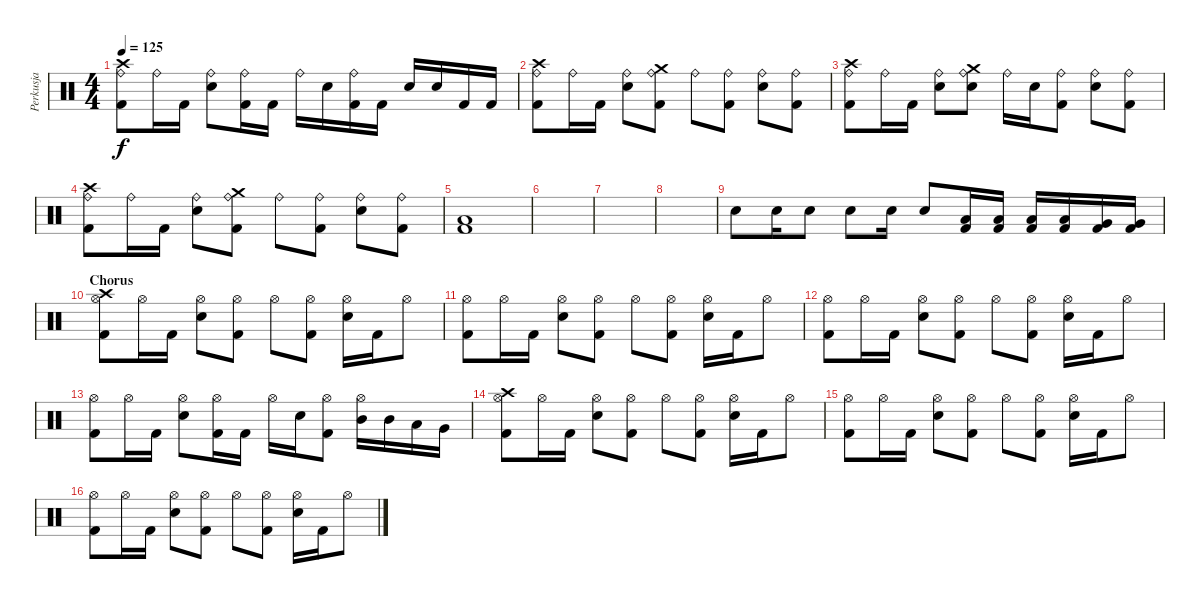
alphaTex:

\track ("Perkusja" "Perkusja") {instrument percussion}
\staff {score}
\articulation defaults
\ts (4 4)
\tempo 125
\clef neutral
\ks c
("Ride (bell)" "Kick (hit) 2" "Crash high (hit)").8{dy f} "Ride (bell)".16 "Kick (hit) 2".16 ("Ride (bell)" "Electric Snare (hit)").8 ("Ride (bell)" "Kick (hit) 2").16 "Kick (hit) 2".16 "Ride (bell)".16 "Electric Snare (hit)".16 ("Ride (bell)" "Kick (hit) 2").16 "Kick (hit) 2".16 "Electric Snare (hit)".16 "Electric Snare (hit)".16 "Kick (hit) 2".16 "Kick (hit) 2".16 |
("Ride (bell)" "Kick (hit) 2" "Crash high (hit)").8 "Ride (bell)".16 "Kick (hit) 2".16 ("Ride (bell)" "Electric Snare (hit)").8 ("Ride (bell)" "Kick (hit) 2" "Crash medium (hit)").8 "Ride (bell)".8 ("Ride (bell)" "Kick (hit) 2").8 ("Ride (bell)" "Electric Snare (hit)").8 ("Ride (bell)" "Kick (hit) 2").8 |
("Ride (bell)" "Kick (hit) 2" "Crash high (hit)").8 "Ride (bell)".16 "Kick (hit) 2".16 ("Ride (bell)" "Electric Snare (hit)").8 ("Ride (bell)" "Electric Snare (hit)" "Crash medium (hit)").8 "Ride (bell)".16 "Electric Snare (hit)".16 ("Ride (bell)" "Kick (hit) 2").8 ("Ride (bell)" "Electric Snare (hit)").8 ("Ride (bell)" "Kick (hit) 2").8 |
("Ride (bell)" "Kick (hit) 2" "Crash high (hit)").8 "Ride (bell)".16 "Kick (hit) 2".16 ("Ride (bell)" "Electric Snare (hit)").8 ("Ride (bell)" "Kick (hit) 2" "Crash medium (hit)").8 "Ride (bell)".8 ("Ride (bell)" "Kick (hit) 2").8 ("Ride (bell)" "Electric Snare (hit)").8 ("Ride (bell)" "Kick (hit) 2").8 |
("Low Tom (hit)" "Kick (hit) 2").1 |
|
|
|
"Electric Snare (hit)".8 "Electric Snare (hit)".16 "Electric Snare (hit)".8 "Electric Snare (hit)".8 "Electric Snare (hit)".16 "Electric Snare (hit)".8 ("Low Tom (hit)" "Kick (hit) 2").16 ("Low Tom (hit)" "Kick (hit) 2").16 ("Low Tom (hit)" "Kick (hit) 2").16 ("Low Tom (hit)" "Kick (hit) 2").16 ("Very Low Tom (hit)" "Kick (hit) 2").16 ("Very Low Tom (hit)" "Kick (hit) 2").16 |
\section ("" "Chorus")
("Hi-Hat (open)" "Kick (hit) 2" "Crash high (hit)").8 "Hi-Hat (open)".16 "Kick (hit) 2".16 ("Hi-Hat (open)" "Electric Snare (hit)").8 ("Hi-Hat (open)" "Kick (hit) 2").8 "Hi-Hat (open)".8 ("Hi-Hat (open)" "Kick (hit) 2").8 ("Hi-Hat (open)" "Electric Snare (hit)").16 "Kick (hit) 2".16 "Hi-Hat (open)".8 |
("Hi-Hat (open)" "Kick (hit) 2").8 "Hi-Hat (open)".16 "Kick (hit) 2".16 ("Hi-Hat (open)" "Electric Snare (hit)").8 ("Hi-Hat (open)" "Kick (hit) 2").8 "Hi-Hat (open)".8 ("Hi-Hat (open)" "Kick (hit) 2").8 ("Hi-Hat (open)" "Electric Snare (hit)").16 "Kick (hit) 2".16 "Hi-Hat (open)".8 |
("Hi-Hat (open)" "Kick (hit) 2").8 "Hi-Hat (open)".16 "Kick (hit) 2".16 ("Hi-Hat (open)" "Electric Snare (hit)").8 ("Hi-Hat (open)" "Kick (hit) 2").8 "Hi-Hat (open)".8 ("Hi-Hat (open)" "Kick (hit) 2").8 ("Hi-Hat (open)" "Electric Snare (hit)").16 "Kick (hit) 2".16 "Hi-Hat (open)".8 |
("Hi-Hat (open)" "Kick (hit) 2").8 "Hi-Hat (open)".16 "Kick (hit) 2".16 ("Hi-Hat (open)" "Electric Snare (hit)").8 ("Hi-Hat (open)" "Kick (hit) 2").16 "Kick (hit) 2".16 "Hi-Hat (open)".16 "Electric Snare (hit)".16 ("Hi-Hat (open)" "Kick (hit) 2").8 ("Hi-Hat (open)" "Mid Tom (hit)").16 "Mid Tom (hit)".16 "Low Tom (hit)".16 "Very Low Tom (hit)".16 |
("Hi-Hat (open)" "Kick (hit) 2" "Crash high (hit)").8 "Hi-Hat (open)".16 "Kick (hit) 2".16 ("Hi-Hat (open)" "Electric Snare (hit)").8 ("Hi-Hat (open)" "Kick (hit) 2").8 "Hi-Hat (open)".8 ("Hi-Hat (open)" "Kick (hit) 2").8 ("Hi-Hat (open)" "Electric Snare (hit)").16 "Kick (hit) 2".16 "Hi-Hat (open)".8 |
("Hi-Hat (open)" "Kick (hit) 2").8 "Hi-Hat (open)".16 "Kick (hit) 2".16 ("Hi-Hat (open)" "Electric Snare (hit)").8 ("Hi-Hat (open)" "Kick (hit) 2").8 "Hi-Hat (open)".8 ("Hi-Hat (open)" "Kick (hit) 2").8 ("Hi-Hat (open)" "Electric Snare (hit)").16 "Kick (hit) 2".16 "Hi-Hat (open)".8 |
("Hi-Hat (open)" "Kick (hit) 2").8 "Hi-Hat (open)".16 "Kick (hit) 2".16 ("Hi-Hat (open)" "Electric Snare (hit)").8 ("Hi-Hat (open)" "Kick (hit) 2").8 "Hi-Hat (open)".8 ("Hi-Hat (open)" "Kick (hit) 2").8 ("Hi-Hat (open)" "Electric Snare (hit)").16 "Kick (hit) 2".16 "Hi-Hat (open)".8
